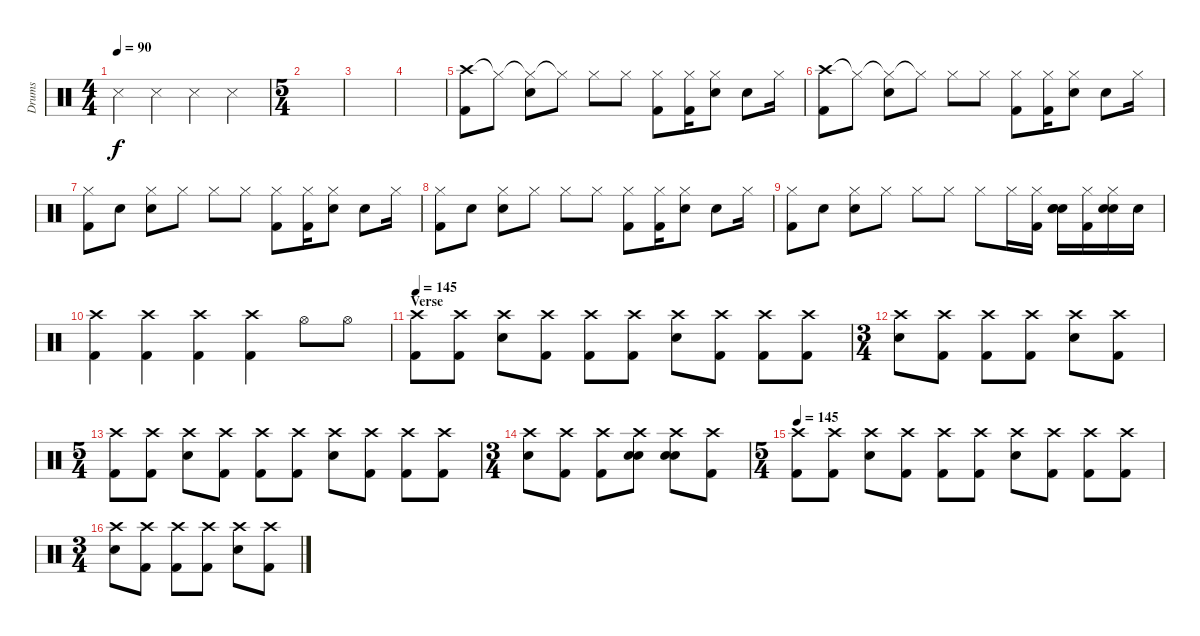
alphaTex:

\track ("Drums" "Drums") {instrument percussion}
\staff {score}
\articulation defaults
\ts (4 4)
\tempo 90
\clef neutral
\ks c "Snare (side stick) 3".4{dy f} "Snare (side stick) 3".4 "Snare (side stick) 3".4 "Snare (side stick) 3".4
|
\ts (5 4)
|
|
|
("Crash high (hit)" "Kick (hit) 2").8 "Hi-Hat (closed)"{t}.8 ("Hi-Hat (closed)"{t} "Electric Snare (hit)").8 "Hi-Hat (closed)"{t}.8 "Hi-Hat (closed)".8 "Hi-Hat (closed)"{x}.8 ("Hi-Hat (closed)" "Kick (hit) 2").8 ("Hi-Hat (closed)"{x} "Kick (hit) 2").16 ("Hi-Hat (closed)" "Electric Snare (hit)").8 "Snare (hit)"{x}.8 "Hi-Hat (closed)"{x}.16 |
("Crash high (hit)" "Kick (hit) 2").8 "Hi-Hat (closed)"{t}.8 ("Hi-Hat (closed)"{t} "Electric Snare (hit)").8 "Hi-Hat (closed)"{t}.8 "Hi-Hat (closed)".8 "Hi-Hat (closed)"{x}.8 ("Hi-Hat (closed)" "Kick (hit) 2").8 ("Hi-Hat (closed)"{x} "Kick (hit) 2").16 ("Hi-Hat (closed)" "Electric Snare (hit)").8 "Snare (hit)"{x}.8 "Hi-Hat (closed)"{x}.16 |
("Hi-Hat (closed)" "Kick (hit) 2").8 "Snare (hit)"{x}.8 ("Hi-Hat (closed)" "Electric Snare (hit)").8 "Hi-Hat (closed)"{x}.8 "Hi-Hat (closed)".8 "Hi-Hat (closed)"{x}.8 ("Hi-Hat (closed)" "Kick (hit) 2").8 ("Hi-Hat (closed)"{x} "Kick (hit) 2").16 ("Hi-Hat (closed)" "Electric Snare (hit)").8 "Snare (hit)"{x}.8 "Hi-Hat (closed)"{x}.16 |
("Hi-Hat (closed)" "Kick (hit) 2").8 "Snare (hit)"{x}.8 ("Hi-Hat (closed)" "Electric Snare (hit)").8 "Hi-Hat (closed)"{x}.8 "Hi-Hat (closed)".8 "Hi-Hat (closed)"{x}.8 ("Hi-Hat (closed)" "Kick (hit) 2").8 ("Hi-Hat (closed)"{x} "Kick (hit) 2").16 ("Hi-Hat (closed)" "Electric Snare (hit)").8 "Snare (hit)"{x}.8 "Hi-Hat (closed)"{x}.16 |
("Hi-Hat (closed)" "Kick (hit) 2").8 "Snare (hit)"{x}.8 ("Hi-Hat (closed)" "Electric Snare (hit)").8 "Hi-Hat (closed)"{x}.8 "Hi-Hat (closed)".8 "Hi-Hat (closed)"{x}.8 "Hi-Hat (closed)".8 "Hi-Hat (closed)"{x}.16 ("Hi-Hat (closed)" "Kick (hit) 2").16 ("Snare (hit)"{x} "Snare (hit) 2" "Electric Snare (hit)").16 ("Hi-Hat (closed)"{x} "Kick (hit) 2").16 ("Hi-Hat (closed)"{x} "Snare (hit) 2" "Electric Snare (hit)").16 "Snare (hit)"{x}.16 |
("Crash high (hit)" "Kick (hit) 2").4 ("Crash high (hit)" "Kick (hit) 2").4 ("Crash high (hit)" "Kick (hit) 2").4 ("Crash high (hit)" "Kick (hit) 2").4 "Hi-Hat (open)".8 "Hi-Hat (open)".8 |
\section ("" "Verse")
\tempo 145
("Crash high (hit)" "Kick (hit) 2").8 ("Crash high (hit)" "Kick (hit) 2").8 ("Crash high (hit)" "Electric Snare (hit)").8 ("Crash high (hit)" "Kick (hit) 2").8 ("Crash high (hit)" "Kick (hit) 2").8 ("Crash high (hit)" "Kick (hit) 2").8 ("Crash high (hit)" "Electric Snare (hit)").8 ("Crash high (hit)" "Kick (hit) 2").8 ("Crash high (hit)" "Kick (hit) 2").8 ("Crash high (hit)" "Kick (hit) 2").8 |
\ts (3 4)
("Crash high (hit)" "Electric Snare (hit)").8 ("Crash high (hit)" "Kick (hit) 2").8 ("Crash high (hit)" "Kick (hit) 2").8 ("Crash high (hit)" "Kick (hit) 2").8 ("Crash high (hit)" "Electric Snare (hit)").8 ("Crash high (hit)" "Kick (hit) 2").8 |
\ts (5 4)
("Crash high (hit)" "Kick (hit) 2").8 ("Crash high (hit)" "Kick (hit) 2").8 ("Crash high (hit)" "Electric Snare (hit)").8 ("Crash high (hit)" "Kick (hit) 2").8 ("Crash high (hit)" "Kick (hit) 2").8 ("Crash high (hit)" "Kick (hit) 2").8 ("Crash high (hit)" "Electric Snare (hit)").8 ("Crash high (hit)" "Kick (hit) 2").8 ("Crash high (hit)" "Kick (hit) 2").8 ("Crash high (hit)" "Kick (hit) 2").8 |
\ts (3 4)
("Crash high (hit)" "Electric Snare (hit)").8 ("Crash high (hit)" "Kick (hit) 2").8 ("Crash high (hit)" "Kick (hit) 2").8 ("Crash high (hit)" "Electric Snare (hit)" "Snare (hit) 2").8 ("Crash high (hit)" "Electric Snare (hit)" "Snare (hit) 2").8 ("Crash high (hit)" "Kick (hit) 2").8 |
\ts (5 4)
\tempo 145
("Crash high (hit)" "Kick (hit) 2").8 ("Crash high (hit)" "Kick (hit) 2").8 ("Crash high (hit)" "Electric Snare (hit)").8 ("Crash high (hit)" "Kick (hit) 2").8 ("Crash high (hit)" "Kick (hit) 2").8 ("Crash high (hit)" "Kick (hit) 2").8 ("Crash high (hit)" "Electric Snare (hit)").8 ("Crash high (hit)" "Kick (hit) 2").8 ("Crash high (hit)" "Kick (hit) 2").8 ("Crash high (hit)" "Kick (hit) 2").8 |
\ts (3 4)
("Crash high (hit)" "Electric Snare (hit)").8 ("Crash high (hit)" "Kick (hit) 2").8 ("Crash high (hit)" "Kick (hit) 2").8 ("Crash high (hit)" "Kick (hit) 2").8 ("Crash high (hit)" "Electric Snare (hit)").8 ("Crash high (hit)" "Kick (hit) 2").8
